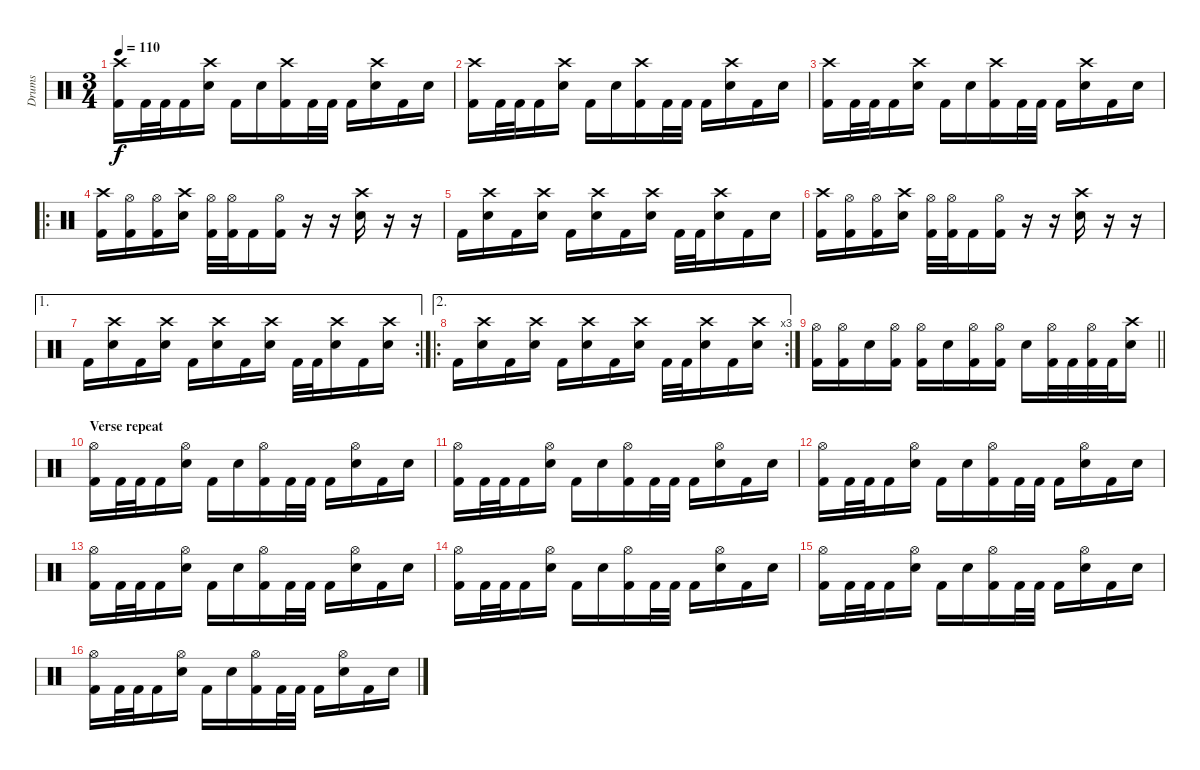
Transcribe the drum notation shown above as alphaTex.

\track ("Drums" "Drums") {instrument percussion}
\staff {score}
\articulation defaults
\ts (3 4)
\tempo 110
\clef neutral
\ks c
("Crash high (hit)" "Kick (hit) 2").16{dy f} "Kick (hit) 2".32 "Kick (hit) 2".32 "Kick (hit) 2".16 ("Crash high (hit)" "Electric Snare (hit)").16 "Kick (hit) 2".16 "Electric Snare (hit)".16 ("Crash high (hit)" "Kick (hit) 2").16 "Kick (hit) 2".32 "Kick (hit) 2".32 "Kick (hit) 2".16 ("Crash high (hit)" "Electric Snare (hit)").16 "Kick (hit) 2".16 "Electric Snare (hit)".16 |
("Crash high (hit)" "Kick (hit) 2").16 "Kick (hit) 2".32 "Kick (hit) 2".32 "Kick (hit) 2".16 ("Crash high (hit)" "Electric Snare (hit)").16 "Kick (hit) 2".16 "Electric Snare (hit)".16 ("Crash high (hit)" "Kick (hit) 2").16 "Kick (hit) 2".32 "Kick (hit) 2".32 "Kick (hit) 2".16 ("Crash high (hit)" "Electric Snare (hit)").16 "Kick (hit) 2".16 "Electric Snare (hit)".16 |
("Crash high (hit)" "Kick (hit) 2").16 "Kick (hit) 2".32 "Kick (hit) 2".32 "Kick (hit) 2".16 ("Crash high (hit)" "Electric Snare (hit)").16 "Kick (hit) 2".16 "Electric Snare (hit)".16 ("Crash high (hit)" "Kick (hit) 2").16 "Kick (hit) 2".32 "Kick (hit) 2".32 "Kick (hit) 2".16 ("Crash high (hit)" "Electric Snare (hit)").16 "Kick (hit) 2".16 "Electric Snare (hit)".16 |
\ro
("Crash high (hit)" "Kick (hit) 2").16 ("Hi-Hat (open)" "Kick (hit) 2").16 ("Hi-Hat (open)" "Kick (hit) 2").16 ("Crash high (hit)" "Electric Snare (hit)").16 ("Hi-Hat (open)" "Kick (hit) 2").32 ("Hi-Hat (open)" "Kick (hit) 2").32 "Kick (hit) 2".16 ("Hi-Hat (open)" "Kick (hit) 2").16 r.16 r.16 ("Crash high (hit)" "Electric Snare (hit)").16 r.16 r.16 |
"Kick (hit) 2".16 ("Crash high (hit)" "Electric Snare (hit)").16 "Kick (hit) 2".16 ("Crash high (hit)" "Electric Snare (hit)").16 "Kick (hit) 2".16 ("Crash high (hit)" "Electric Snare (hit)").16 "Kick (hit) 2".16 ("Crash high (hit)" "Electric Snare (hit)").16 "Kick (hit) 2".32 "Kick (hit) 2".32 ("Crash high (hit)" "Electric Snare (hit)").16 "Kick (hit) 2".16 "Electric Snare (hit)".16 |
("Crash high (hit)" "Kick (hit) 2").16 ("Hi-Hat (open)" "Kick (hit) 2").16 ("Hi-Hat (open)" "Kick (hit) 2").16 ("Crash high (hit)" "Electric Snare (hit)").16 ("Hi-Hat (open)" "Kick (hit) 2").32 ("Hi-Hat (open)" "Kick (hit) 2").32 "Kick (hit) 2".16 ("Hi-Hat (open)" "Kick (hit) 2").16 r.16 r.16 ("Crash high (hit)" "Electric Snare (hit)").16 r.16 r.16 |
\ae 1
\rc 2 "Kick (hit) 2".16
("Crash high (hit)" "Electric Snare (hit)").16 "Kick (hit) 2".16 ("Crash high (hit)" "Electric Snare (hit)").16 "Kick (hit) 2".16 ("Crash high (hit)" "Electric Snare (hit)").16 "Kick (hit) 2".16 ("Crash high (hit)" "Electric Snare (hit)").16 "Kick (hit) 2".32 "Kick (hit) 2".32 ("Crash high (hit)" "Electric Snare (hit)").16 "Kick (hit) 2".16 ("Crash high (hit)" "Electric Snare (hit)").16 |
\ae 2
\ro
\rc 3 "Kick (hit) 2".16
("Crash high (hit)" "Electric Snare (hit)").16 "Kick (hit) 2".16 ("Crash high (hit)" "Electric Snare (hit)").16 "Kick (hit) 2".16 ("Crash high (hit)" "Electric Snare (hit)").16 "Kick (hit) 2".16 ("Crash high (hit)" "Electric Snare (hit)").16 "Kick (hit) 2".32 "Kick (hit) 2".32 ("Crash high (hit)" "Electric Snare (hit)").16 "Kick (hit) 2".16 ("Crash high (hit)" "Electric Snare (hit)").16 |
\barLineRight lightlight
("Hi-Hat (open)" "Kick (hit) 2").16 ("Hi-Hat (open)" "Kick (hit) 2").16 "Electric Snare (hit)".16 ("Hi-Hat (open)" "Kick (hit) 2").16 ("Hi-Hat (open)" "Kick (hit) 2").16 "Electric Snare (hit)".16 ("Hi-Hat (open)" "Kick (hit) 2").16 ("Hi-Hat (open)" "Kick (hit) 2").16 "Electric Snare (hit)".16 ("Hi-Hat (open)" "Kick (hit) 2").32 "Kick (hit) 2".32 ("Hi-Hat (open)" "Kick (hit) 2").32 "Kick (hit) 2".32 ("Crash high (hit)" "Electric Snare (hit)").16 |
\section ("" "Verse repeat")
("Hi-Hat (open)" "Kick (hit) 2").16 "Kick (hit) 2".32 "Kick (hit) 2".32 "Kick (hit) 2".16 ("Hi-Hat (open)" "Electric Snare (hit)").16 "Kick (hit) 2".16 "Electric Snare (hit)".16 ("Hi-Hat (open)" "Kick (hit) 2").16 "Kick (hit) 2".32 "Kick (hit) 2".32 "Kick (hit) 2".16 ("Hi-Hat (open)" "Electric Snare (hit)").16 "Kick (hit) 2".16 "Electric Snare (hit)".16 |
("Hi-Hat (open)" "Kick (hit) 2").16 "Kick (hit) 2".32 "Kick (hit) 2".32 "Kick (hit) 2".16 ("Hi-Hat (open)" "Electric Snare (hit)").16 "Kick (hit) 2".16 "Electric Snare (hit)".16 ("Hi-Hat (open)" "Kick (hit) 2").16 "Kick (hit) 2".32 "Kick (hit) 2".32 "Kick (hit) 2".16 ("Hi-Hat (open)" "Electric Snare (hit)").16 "Kick (hit) 2".16 "Electric Snare (hit)".16 |
("Hi-Hat (open)" "Kick (hit) 2").16 "Kick (hit) 2".32 "Kick (hit) 2".32 "Kick (hit) 2".16 ("Hi-Hat (open)" "Electric Snare (hit)").16 "Kick (hit) 2".16 "Electric Snare (hit)".16 ("Hi-Hat (open)" "Kick (hit) 2").16 "Kick (hit) 2".32 "Kick (hit) 2".32 "Kick (hit) 2".16 ("Hi-Hat (open)" "Electric Snare (hit)").16 "Kick (hit) 2".16 "Electric Snare (hit)".16 |
("Hi-Hat (open)" "Kick (hit) 2").16 "Kick (hit) 2".32 "Kick (hit) 2".32 "Kick (hit) 2".16 ("Hi-Hat (open)" "Electric Snare (hit)").16 "Kick (hit) 2".16 "Electric Snare (hit)".16 ("Hi-Hat (open)" "Kick (hit) 2").16 "Kick (hit) 2".32 "Kick (hit) 2".32 "Kick (hit) 2".16 ("Hi-Hat (open)" "Electric Snare (hit)").16 "Kick (hit) 2".16 "Electric Snare (hit)".16 |
("Hi-Hat (open)" "Kick (hit) 2").16 "Kick (hit) 2".32 "Kick (hit) 2".32 "Kick (hit) 2".16 ("Hi-Hat (open)" "Electric Snare (hit)").16 "Kick (hit) 2".16 "Electric Snare (hit)".16 ("Hi-Hat (open)" "Kick (hit) 2").16 "Kick (hit) 2".32 "Kick (hit) 2".32 "Kick (hit) 2".16 ("Hi-Hat (open)" "Electric Snare (hit)").16 "Kick (hit) 2".16 "Electric Snare (hit)".16 |
("Hi-Hat (open)" "Kick (hit) 2").16 "Kick (hit) 2".32 "Kick (hit) 2".32 "Kick (hit) 2".16 ("Hi-Hat (open)" "Electric Snare (hit)").16 "Kick (hit) 2".16 "Electric Snare (hit)".16 ("Hi-Hat (open)" "Kick (hit) 2").16 "Kick (hit) 2".32 "Kick (hit) 2".32 "Kick (hit) 2".16 ("Hi-Hat (open)" "Electric Snare (hit)").16 "Kick (hit) 2".16 "Electric Snare (hit)".16 |
("Hi-Hat (open)" "Kick (hit) 2").16 "Kick (hit) 2".32 "Kick (hit) 2".32 "Kick (hit) 2".16 ("Hi-Hat (open)" "Electric Snare (hit)").16 "Kick (hit) 2".16 "Electric Snare (hit)".16 ("Hi-Hat (open)" "Kick (hit) 2").16 "Kick (hit) 2".32 "Kick (hit) 2".32 "Kick (hit) 2".16 ("Hi-Hat (open)" "Electric Snare (hit)").16 "Kick (hit) 2".16 "Electric Snare (hit)".16
